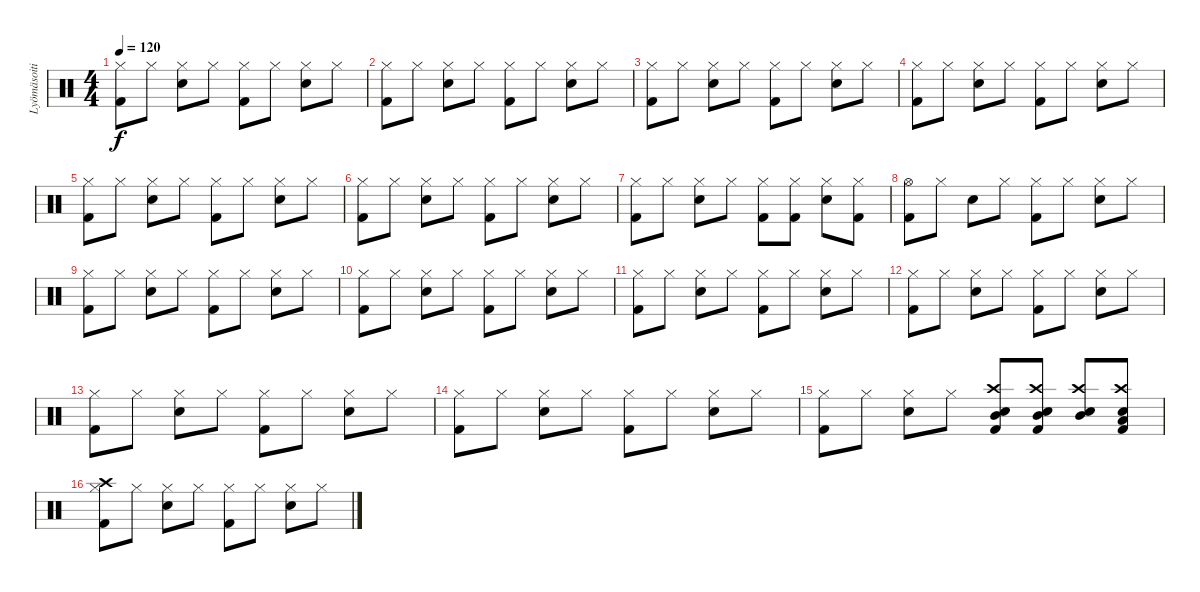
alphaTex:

\track ("Lyömäsoitin" "Lyömäsoiti") {instrument percussion}
\staff {score}
\articulation defaults
\ts (4 4)
\tempo 120
\clef neutral
\ks c
("Hi-Hat (closed)" "Kick (hit) 2").8{dy f} "Hi-Hat (closed)".8 ("Hi-Hat (closed)" "Electric Snare (hit)").8 "Hi-Hat (closed)".8 ("Hi-Hat (closed)" "Kick (hit) 2").8 "Hi-Hat (closed)".8 ("Hi-Hat (closed)" "Electric Snare (hit)").8 "Hi-Hat (closed)".8 |
("Hi-Hat (closed)" "Kick (hit) 2").8 "Hi-Hat (closed)".8 ("Hi-Hat (closed)" "Electric Snare (hit)").8 "Hi-Hat (closed)".8 ("Hi-Hat (closed)" "Kick (hit) 2").8 "Hi-Hat (closed)".8 ("Hi-Hat (closed)" "Electric Snare (hit)").8 "Hi-Hat (closed)".8 |
("Hi-Hat (closed)" "Kick (hit) 2").8 "Hi-Hat (closed)".8 ("Hi-Hat (closed)" "Electric Snare (hit)").8 "Hi-Hat (closed)".8 ("Hi-Hat (closed)" "Kick (hit) 2").8 "Hi-Hat (closed)".8 ("Hi-Hat (closed)" "Electric Snare (hit)").8 "Hi-Hat (closed)".8 |
("Hi-Hat (closed)" "Kick (hit) 2").8 "Hi-Hat (closed)".8 ("Hi-Hat (closed)" "Electric Snare (hit)").8 "Hi-Hat (closed)".8 ("Hi-Hat (closed)" "Kick (hit) 2").8 "Hi-Hat (closed)".8 ("Hi-Hat (closed)" "Electric Snare (hit)").8 "Hi-Hat (closed)".8 |
("Hi-Hat (closed)" "Kick (hit) 2").8 "Hi-Hat (closed)".8 ("Hi-Hat (closed)" "Electric Snare (hit)").8 "Hi-Hat (closed)".8 ("Hi-Hat (closed)" "Kick (hit) 2").8 "Hi-Hat (closed)".8 ("Hi-Hat (closed)" "Electric Snare (hit)").8 "Hi-Hat (closed)".8 |
("Hi-Hat (closed)" "Kick (hit) 2").8 "Hi-Hat (closed)".8 ("Hi-Hat (closed)" "Electric Snare (hit)").8 "Hi-Hat (closed)".8 ("Hi-Hat (closed)" "Kick (hit) 2").8 "Hi-Hat (closed)".8 ("Hi-Hat (closed)" "Electric Snare (hit)").8 "Hi-Hat (closed)".8 |
("Hi-Hat (closed)" "Kick (hit) 2").8 "Hi-Hat (closed)".8 ("Hi-Hat (closed)" "Electric Snare (hit)").8 "Hi-Hat (closed)".8 ("Hi-Hat (closed)" "Kick (hit) 2").8 ("Hi-Hat (closed)" "Kick (hit) 2").8 ("Hi-Hat (closed)" "Electric Snare (hit)").8 ("Hi-Hat (closed)" "Kick (hit) 2").8 |
("Hi-Hat (open)" "Kick (hit) 2").8 "Hi-Hat (closed)".8 "Electric Snare (hit)".8 "Hi-Hat (closed)".8 ("Hi-Hat (closed)" "Kick (hit) 2").8 "Hi-Hat (closed)".8 ("Hi-Hat (closed)" "Electric Snare (hit)").8 "Hi-Hat (closed)".8 |
("Hi-Hat (closed)" "Kick (hit) 2").8 "Hi-Hat (closed)".8 ("Hi-Hat (closed)" "Electric Snare (hit)").8 "Hi-Hat (closed)".8 ("Hi-Hat (closed)" "Kick (hit) 2").8 "Hi-Hat (closed)".8 ("Hi-Hat (closed)" "Electric Snare (hit)").8 "Hi-Hat (closed)".8 |
("Hi-Hat (closed)" "Kick (hit) 2").8 "Hi-Hat (closed)".8 ("Hi-Hat (closed)" "Electric Snare (hit)").8 "Hi-Hat (closed)".8 ("Hi-Hat (closed)" "Kick (hit) 2").8 "Hi-Hat (closed)".8 ("Hi-Hat (closed)" "Electric Snare (hit)").8 "Hi-Hat (closed)".8 |
("Hi-Hat (closed)" "Kick (hit) 2").8 "Hi-Hat (closed)".8 ("Hi-Hat (closed)" "Electric Snare (hit)").8 "Hi-Hat (closed)".8 ("Hi-Hat (closed)" "Kick (hit) 2").8 "Hi-Hat (closed)".8 ("Hi-Hat (closed)" "Electric Snare (hit)").8 "Hi-Hat (closed)".8 |
("Hi-Hat (closed)" "Kick (hit) 2").8 "Hi-Hat (closed)".8 ("Hi-Hat (closed)" "Electric Snare (hit)").8 "Hi-Hat (closed)".8 ("Hi-Hat (closed)" "Kick (hit) 2").8 "Hi-Hat (closed)".8 ("Hi-Hat (closed)" "Electric Snare (hit)").8 "Hi-Hat (closed)".8 |
("Hi-Hat (closed)" "Kick (hit) 2").8 "Hi-Hat (closed)".8 ("Hi-Hat (closed)" "Electric Snare (hit)").8 "Hi-Hat (closed)".8 ("Hi-Hat (closed)" "Kick (hit) 2").8 "Hi-Hat (closed)".8 ("Hi-Hat (closed)" "Electric Snare (hit)").8 "Hi-Hat (closed)".8 |
("Hi-Hat (closed)" "Kick (hit) 2").8 "Hi-Hat (closed)".8 ("Hi-Hat (closed)" "Electric Snare (hit)").8 "Hi-Hat (closed)".8 ("Hi-Hat (closed)" "Kick (hit) 2").8 "Hi-Hat (closed)".8 ("Hi-Hat (closed)" "Electric Snare (hit)").8 "Hi-Hat (closed)".8 |
("Hi-Hat (closed)" "Kick (hit) 2").8 "Hi-Hat (closed)".8 ("Hi-Hat (closed)" "Electric Snare (hit)").8 "Hi-Hat (closed)".8 ("Crash high (hit)" "Mid Tom (hit)" "Electric Snare (hit)" "Kick (hit) 2").8 ("Crash high (hit)" "Mid Tom (hit)" "Electric Snare (hit)" "Kick (hit) 2").8 ("Crash high (hit)" "Mid Tom (hit)" "Electric Snare (hit)").8 ("Crash high (hit)" "Low Tom (hit)" "Electric Snare (hit)" "Kick (hit) 2").8 |
("Crash high (hit)" "Hi-Hat (closed)" "Kick (hit) 2").8 "Hi-Hat (closed)".8 ("Hi-Hat (closed)" "Electric Snare (hit)").8 "Hi-Hat (closed)".8 ("Hi-Hat (closed)" "Kick (hit) 2").8 "Hi-Hat (closed)".8 ("Hi-Hat (closed)" "Electric Snare (hit)").8 "Hi-Hat (closed)".8
